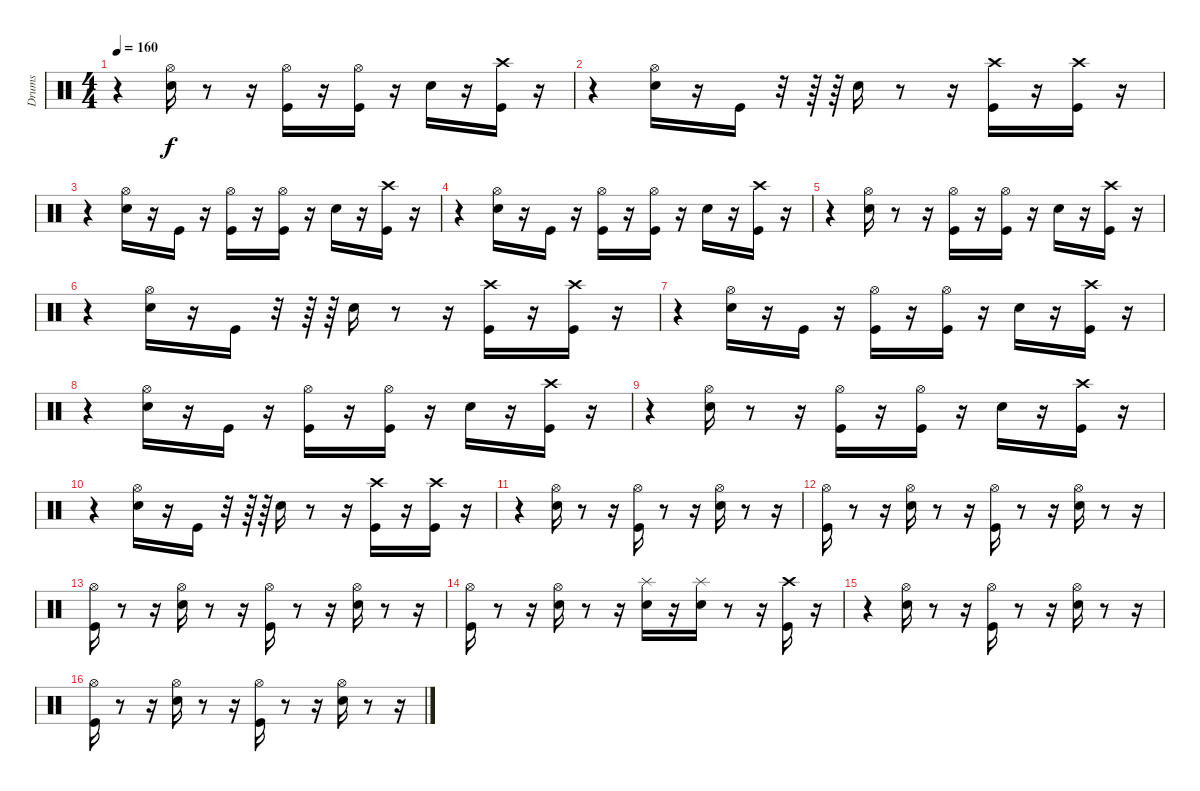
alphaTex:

\track ("Drums" "Drums") {instrument percussion}
\staff {score}
\articulation defaults
\ts (4 4)
\tempo 160
\clef neutral
\ks c
r.4{dy f} ("Snare (hit) 2" "Hi-Hat (open)").16 r.8 r.16 ("Hi-Hat (open)" "Kick (hit)").16 r.16 ("Hi-Hat (open)" "Kick (hit)").16 r.16 "Snare (hit) 2".16 r.16 ("Kick (hit)" "Crash high (hit)").16 r.16 |
r.4 ("Hi-Hat (open)" "Snare (hit) 2").16 r.16 "Kick (hit)".16 r.32 r.64 r.64 "Snare (hit) 2".16 r.8 r.16 ("Kick (hit)" "Crash high (hit)").16 r.16 ("Kick (hit)" "Crash high (hit)").16 r.16 |
r.4 ("Snare (hit) 2" "Hi-Hat (open)").16 r.16 "Kick (hit)".16 r.16 ("Hi-Hat (open)" "Kick (hit)").16 r.16 ("Kick (hit)" "Hi-Hat (open)").16 r.16 "Snare (hit) 2".16 r.16 ("Kick (hit)" "Crash high (hit)").16 r.16 |
r.4 ("Snare (hit) 2" "Hi-Hat (open)").16 r.16 "Kick (hit)".16 r.16 ("Hi-Hat (open)" "Kick (hit)").16 r.16 ("Kick (hit)" "Hi-Hat (open)").16 r.16 "Snare (hit) 2".16 r.16 ("Kick (hit)" "Crash high (hit)").16 r.16 |
r.4 ("Snare (hit) 2" "Hi-Hat (open)").16 r.8 r.16 ("Hi-Hat (open)" "Kick (hit)").16 r.16 ("Hi-Hat (open)" "Kick (hit)").16 r.16 "Snare (hit) 2".16 r.16 ("Kick (hit)" "Crash high (hit)").16 r.16 |
r.4 ("Hi-Hat (open)" "Snare (hit) 2").16 r.16 "Kick (hit)".16 r.32 r.64 r.64 "Snare (hit) 2".16 r.8 r.16 ("Kick (hit)" "Crash high (hit)").16 r.16 ("Kick (hit)" "Crash high (hit)").16 r.16 |
r.4 ("Snare (hit) 2" "Hi-Hat (open)").16 r.16 "Kick (hit)".16 r.16 ("Hi-Hat (open)" "Kick (hit)").16 r.16 ("Kick (hit)" "Hi-Hat (open)").16 r.16 "Snare (hit) 2".16 r.16 ("Kick (hit)" "Crash high (hit)").16 r.16 |
r.4 ("Snare (hit) 2" "Hi-Hat (open)").16 r.16 "Kick (hit)".16 r.16 ("Hi-Hat (open)" "Kick (hit)").16 r.16 ("Kick (hit)" "Hi-Hat (open)").16 r.16 "Snare (hit) 2".16 r.16 ("Kick (hit)" "Crash high (hit)").16 r.16 |
r.4 ("Snare (hit) 2" "Hi-Hat (open)").16 r.8 r.16 ("Hi-Hat (open)" "Kick (hit)").16 r.16 ("Hi-Hat (open)" "Kick (hit)").16 r.16 "Snare (hit) 2".16 r.16 ("Kick (hit)" "Crash high (hit)").16 r.16 |
r.4 ("Hi-Hat (open)" "Snare (hit) 2").16 r.16 "Kick (hit)".16 r.32 r.64 r.64 "Snare (hit) 2".16 r.8 r.16 ("Kick (hit)" "Crash high (hit)").16 r.16 ("Kick (hit)" "Crash high (hit)").16 r.16 |
r.4 ("Snare (hit) 2" "Hi-Hat (open)").16 r.8 r.16 ("Kick (hit)" "Hi-Hat (open)").16 r.8 r.16 ("Snare (hit) 2" "Hi-Hat (open)").16 r.8 r.16 |
("Kick (hit)" "Hi-Hat (open)").16 r.8 r.16 ("Hi-Hat (open)" "Snare (hit) 2").16 r.8 r.16 ("Kick (hit)" "Hi-Hat (open)").16 r.8 r.16 ("Snare (hit) 2" "Hi-Hat (open)").16 r.8 r.16 |
("Kick (hit)" "Hi-Hat (open)").16 r.8 r.16 ("Hi-Hat (open)" "Snare (hit) 2").16 r.8 r.16 ("Kick (hit)" "Hi-Hat (open)").16 r.8 r.16 ("Snare (hit) 2" "Hi-Hat (open)").16 r.8 r.16 |
("Kick (hit)" "Hi-Hat (open)").16 r.8 r.16 ("Hi-Hat (open)" "Snare (hit) 2").16 r.8 r.16 ("Snare (hit) 2" "Splash (hit)").16 r.16 ("Snare (hit) 2" "Splash (hit)").16 r.8 r.16 ("Kick (hit)" "Crash high (hit)").16 r.16 |
r.4 ("Hi-Hat (open)" "Snare (hit) 2").16 r.8 r.16 ("Kick (hit)" "Hi-Hat (open)").16 r.8 r.16 ("Snare (hit) 2" "Hi-Hat (open)").16 r.8 r.16 |
("Kick (hit)" "Hi-Hat (open)").16 r.8 r.16 ("Hi-Hat (open)" "Snare (hit) 2").16 r.8 r.16 ("Kick (hit)" "Hi-Hat (open)").16 r.8 r.16 ("Snare (hit) 2" "Hi-Hat (open)").16 r.8 r.16
